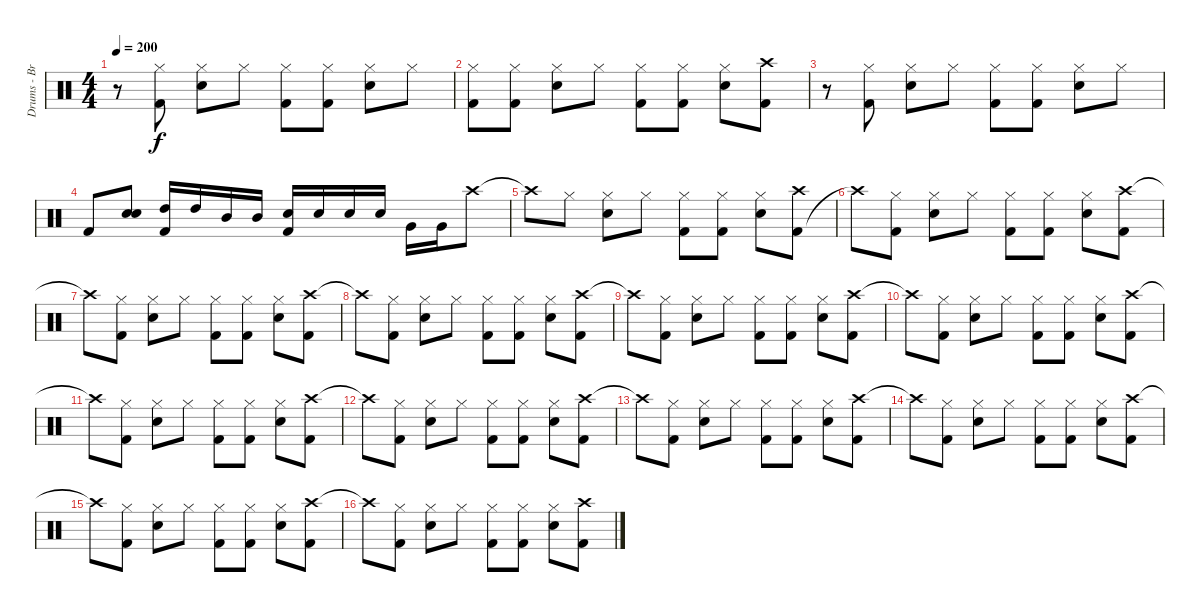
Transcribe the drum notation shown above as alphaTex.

\track ("Drums - Brandon Barnes" "Drums - Br") {instrument percussion}
\staff {score}
\articulation defaults
\ts (4 4)
\tempo 200
\clef neutral
\ks c
r.8{dy f} ("Kick (hit) 2" "Hi-Hat (closed)").8 ("Hi-Hat (closed)" "Snare (hit) 2").8 "Hi-Hat (closed)".8 ("Hi-Hat (closed)" "Kick (hit) 2").8 ("Kick (hit) 2" "Hi-Hat (closed)").8 ("Hi-Hat (closed)" "Snare (hit) 2").8 "Hi-Hat (closed)".8 |
("Hi-Hat (closed)" "Kick (hit) 2").8 ("Kick (hit) 2" "Hi-Hat (closed)").8 ("Hi-Hat (closed)" "Snare (hit) 2").8 "Hi-Hat (closed)".8 ("Hi-Hat (closed)" "Kick (hit) 2").8 ("Kick (hit) 2" "Hi-Hat (closed)").8 ("Hi-Hat (closed)" "Snare (hit) 2").8 ("Crash high (hit)" "Kick (hit) 2").8 |
r.8 ("Kick (hit) 2" "Hi-Hat (closed)").8 ("Hi-Hat (closed)" "Snare (hit) 2").8 "Hi-Hat (closed)".8 ("Hi-Hat (closed)" "Kick (hit) 2").8 ("Kick (hit) 2" "Hi-Hat (closed)").8 ("Hi-Hat (closed)" "Snare (hit) 2").8 "Hi-Hat (closed)".8 |
"Kick (hit) 2".8 ("Snare (hit) 2" "Electric Snare (hit)").8 ("Kick (hit) 2" "High Tom (hit)").16 "High Tom (hit)".16 "Mid Tom (hit)".16 "Mid Tom (hit)".16 ("Kick (hit) 2" "Snare (hit) 2").16 "Snare (hit) 2".16 "Snare (hit) 2".16 "Snare (hit) 2".16 "Very Low Tom (hit)".16 "Very Low Tom (hit)".16 "Crash high (hit)".8 |
"Crash high (hit)"{t}.8 "Hi-Hat (closed)".8 ("Hi-Hat (closed)" "Snare (hit) 2").8 "Hi-Hat (closed)".8 ("Hi-Hat (closed)" "Kick (hit) 2").8 ("Kick (hit) 2" "Hi-Hat (closed)").8 ("Hi-Hat (closed)" "Snare (hit) 2").8 ("Kick (hit) 2" "Crash high (hit)").8 |
"Crash high (hit)"{t}.8 ("Kick (hit) 2" "Hi-Hat (closed)").8 ("Hi-Hat (closed)" "Snare (hit) 2").8 "Hi-Hat (closed)".8 ("Hi-Hat (closed)" "Kick (hit) 2").8 ("Kick (hit) 2" "Hi-Hat (closed)").8 ("Hi-Hat (closed)" "Snare (hit) 2").8 ("Crash high (hit)" "Kick (hit) 2").8 |
"Crash high (hit)"{t}.8 ("Kick (hit) 2" "Hi-Hat (closed)").8 ("Hi-Hat (closed)" "Snare (hit) 2").8 "Hi-Hat (closed)".8 ("Hi-Hat (closed)" "Kick (hit) 2").8 ("Kick (hit) 2" "Hi-Hat (closed)").8 ("Hi-Hat (closed)" "Snare (hit) 2").8 ("Crash high (hit)" "Kick (hit) 2").8 |
"Crash high (hit)"{t}.8 ("Kick (hit) 2" "Hi-Hat (closed)").8 ("Hi-Hat (closed)" "Snare (hit) 2").8 "Hi-Hat (closed)".8 ("Hi-Hat (closed)" "Kick (hit) 2").8 ("Kick (hit) 2" "Hi-Hat (closed)").8 ("Hi-Hat (closed)" "Snare (hit) 2").8 ("Crash high (hit)" "Kick (hit) 2").8 |
"Crash high (hit)"{t}.8 ("Kick (hit) 2" "Hi-Hat (closed)").8 ("Hi-Hat (closed)" "Snare (hit) 2").8 "Hi-Hat (closed)".8 ("Hi-Hat (closed)" "Kick (hit) 2").8 ("Kick (hit) 2" "Hi-Hat (closed)").8 ("Hi-Hat (closed)" "Snare (hit) 2").8 ("Crash high (hit)" "Kick (hit) 2").8 |
"Crash high (hit)"{t}.8 ("Kick (hit) 2" "Hi-Hat (closed)").8 ("Hi-Hat (closed)" "Snare (hit) 2").8 "Hi-Hat (closed)".8 ("Hi-Hat (closed)" "Kick (hit) 2").8 ("Kick (hit) 2" "Hi-Hat (closed)").8 ("Hi-Hat (closed)" "Snare (hit) 2").8 ("Crash high (hit)" "Kick (hit) 2").8 |
"Crash high (hit)"{t}.8 ("Kick (hit) 2" "Hi-Hat (closed)").8 ("Hi-Hat (closed)" "Snare (hit) 2").8 "Hi-Hat (closed)".8 ("Hi-Hat (closed)" "Kick (hit) 2").8 ("Kick (hit) 2" "Hi-Hat (closed)").8 ("Hi-Hat (closed)" "Snare (hit) 2").8 ("Crash high (hit)" "Kick (hit) 2").8 |
"Crash high (hit)"{t}.8 ("Kick (hit) 2" "Hi-Hat (closed)").8 ("Hi-Hat (closed)" "Snare (hit) 2").8 "Hi-Hat (closed)".8 ("Hi-Hat (closed)" "Kick (hit) 2").8 ("Kick (hit) 2" "Hi-Hat (closed)").8 ("Hi-Hat (closed)" "Snare (hit) 2").8 ("Crash high (hit)" "Kick (hit) 2").8 |
"Crash high (hit)"{t}.8 ("Kick (hit) 2" "Hi-Hat (closed)").8 ("Hi-Hat (closed)" "Snare (hit) 2").8 "Hi-Hat (closed)".8 ("Hi-Hat (closed)" "Kick (hit) 2").8 ("Kick (hit) 2" "Hi-Hat (closed)").8 ("Hi-Hat (closed)" "Snare (hit) 2").8 ("Crash high (hit)" "Kick (hit) 2").8 |
"Crash high (hit)"{t}.8 ("Kick (hit) 2" "Hi-Hat (closed)").8 ("Hi-Hat (closed)" "Snare (hit) 2").8 "Hi-Hat (closed)".8 ("Hi-Hat (closed)" "Kick (hit) 2").8 ("Kick (hit) 2" "Hi-Hat (closed)").8 ("Hi-Hat (closed)" "Snare (hit) 2").8 ("Crash high (hit)" "Kick (hit) 2").8 |
"Crash high (hit)"{t}.8 ("Kick (hit) 2" "Hi-Hat (closed)").8 ("Hi-Hat (closed)" "Snare (hit) 2").8 "Hi-Hat (closed)".8 ("Hi-Hat (closed)" "Kick (hit) 2").8 ("Kick (hit) 2" "Hi-Hat (closed)").8 ("Hi-Hat (closed)" "Snare (hit) 2").8 ("Crash high (hit)" "Kick (hit) 2").8 |
"Crash high (hit)"{t}.8 ("Kick (hit) 2" "Hi-Hat (closed)").8 ("Hi-Hat (closed)" "Snare (hit) 2").8 "Hi-Hat (closed)".8 ("Hi-Hat (closed)" "Kick (hit) 2").8 ("Kick (hit) 2" "Hi-Hat (closed)").8 ("Hi-Hat (closed)" "Snare (hit) 2").8 ("Crash high (hit)" "Kick (hit) 2").8
